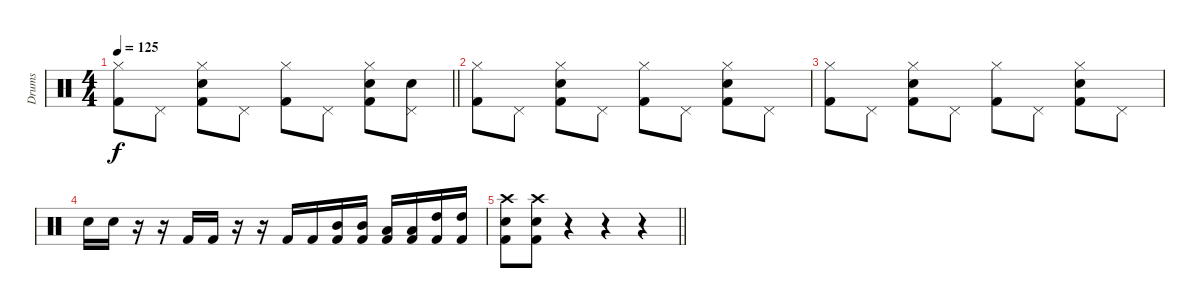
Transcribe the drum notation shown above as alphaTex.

\track ("Drums" "Drums") {instrument percussion}
\staff {score}
\articulation defaults
\ts (4 4)
\tempo 125
\clef neutral
\barLineRight lightlight
\ks c
("Hi-Hat (closed)" "Kick (hit) 2").8{dy f} "Pedal Hi-Hat (hit)".8 ("Hi-Hat (closed)" "Snare (hit) 2" "Kick (hit) 2").8 "Pedal Hi-Hat (hit)".8 ("Hi-Hat (closed)" "Kick (hit) 2").8 "Pedal Hi-Hat (hit)".8 ("Hi-Hat (closed)" "Snare (hit) 2" "Kick (hit) 2").8 ("Pedal Hi-Hat (hit)" "Snare (hit) 2").8 |
("Hi-Hat (closed)" "Kick (hit) 2").8 "Pedal Hi-Hat (hit)".8 ("Hi-Hat (closed)" "Snare (hit) 2" "Kick (hit) 2").8 "Pedal Hi-Hat (hit)".8 ("Hi-Hat (closed)" "Kick (hit) 2").8 "Pedal Hi-Hat (hit)".8 ("Hi-Hat (closed)" "Snare (hit) 2" "Kick (hit) 2").8 "Pedal Hi-Hat (hit)".8 |
("Hi-Hat (closed)" "Kick (hit) 2").8 "Pedal Hi-Hat (hit)".8 ("Hi-Hat (closed)" "Snare (hit) 2" "Kick (hit) 2").8 "Pedal Hi-Hat (hit)".8 ("Hi-Hat (closed)" "Kick (hit) 2").8 "Pedal Hi-Hat (hit)".8 ("Hi-Hat (closed)" "Snare (hit) 2" "Kick (hit) 2").8 "Pedal Hi-Hat (hit)".8 |
"Snare (hit) 2".16 "Snare (hit) 2".16 r.16 r.16 "Kick (hit) 2".16 "Kick (hit) 2".16 r.16 r.16 "Kick (hit) 2".16 "Kick (hit) 2".16 ("Mid Tom (hit)" "Kick (hit) 2").16 ("Mid Tom (hit)" "Kick (hit) 2").16 ("Low Tom (hit)" "Kick (hit) 2").16 ("Low Tom (hit)" "Kick (hit) 2").16 ("High Tom (hit)" "Kick (hit) 2").16 ("High Tom (hit)" "Kick (hit) 2").16 |
\barLineRight lightlight
("Snare (hit) 2" "Crash high (hit)" "Kick (hit) 2").8 ("Snare (hit) 2" "Crash high (hit)" "Kick (hit) 2").8 r.4 r.4 r.4
